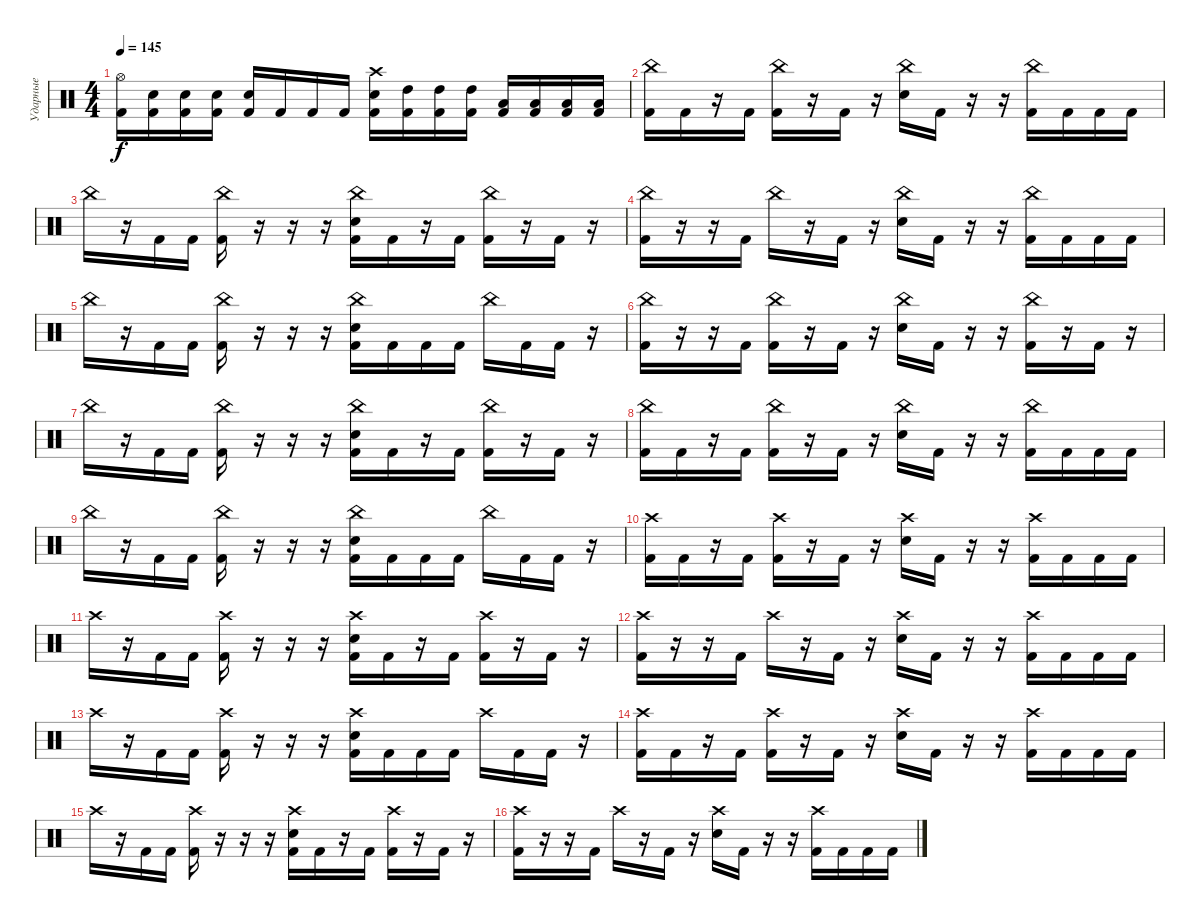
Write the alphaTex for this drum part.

\track ("Ударные" "Ударные") {instrument percussion}
\staff {score}
\articulation defaults
\ts (4 4)
\tempo 145
\clef neutral
\ks c
("Hi-Hat (open)" "Kick (hit) 2").16{dy f} ("Electric Snare (hit)" "Kick (hit) 2").16 ("Electric Snare (hit)" "Kick (hit) 2").16 ("Electric Snare (hit)" "Kick (hit) 2").16 ("Electric Snare (hit)" "Kick (hit) 2").16 "Kick (hit) 2".16 "Kick (hit) 2".16 "Kick (hit) 2".16 ("Crash high (hit)" "Electric Snare (hit)" "Kick (hit) 2").16 ("High Tom (hit)" "Kick (hit) 2").16 ("High Tom (hit)" "Kick (hit) 2").16 ("High Tom (hit)" "Kick (hit) 2").16 ("Low Tom (hit)" "Kick (hit) 2").16 ("Low Tom (hit)" "Kick (hit) 2").16 ("Low Tom (hit)" "Kick (hit) 2").16 ("Low Tom (hit)" "Kick (hit) 2").16 |
("China (hit)" "Kick (hit) 2").16 "Kick (hit) 2".16 r.16 "Kick (hit) 2".16 ("China (hit)" "Kick (hit) 2").16 r.16 "Kick (hit) 2".16 r.16 ("China (hit)" "Electric Snare (hit)").16 "Kick (hit) 2".16 r.16 r.16 ("China (hit)" "Kick (hit) 2").16 "Kick (hit) 2".16 "Kick (hit) 2".16 "Kick (hit) 2".16 |
"China (hit)".16 r.16 "Kick (hit) 2".16 "Kick (hit) 2".16 ("China (hit)" "Kick (hit) 2").16 r.16 r.16 r.16 ("China (hit)" "Electric Snare (hit)" "Kick (hit) 2").16 "Kick (hit) 2".16 r.16 "Kick (hit) 2".16 ("China (hit)" "Kick (hit) 2").16 r.16 "Kick (hit) 2".16 r.16 |
("China (hit)" "Kick (hit) 2").16 r.16 r.16 "Kick (hit) 2".16 "China (hit)".16 r.16 "Kick (hit) 2".16 r.16 ("China (hit)" "Electric Snare (hit)").16 "Kick (hit) 2".16 r.16 r.16 ("China (hit)" "Kick (hit) 2").16 "Kick (hit) 2".16 "Kick (hit) 2".16 "Kick (hit) 2".16 |
"China (hit)".16 r.16 "Kick (hit) 2".16 "Kick (hit) 2".16 ("China (hit)" "Kick (hit) 2").16 r.16 r.16 r.16 ("China (hit)" "Electric Snare (hit)" "Kick (hit) 2").16 "Kick (hit) 2".16 "Kick (hit) 2".16 "Kick (hit) 2".16 "China (hit)".16 "Kick (hit) 2".16 "Kick (hit) 2".16 r.16 |
("China (hit)" "Kick (hit) 2").16 r.16 r.16 "Kick (hit) 2".16 ("China (hit)" "Kick (hit) 2").16 r.16 "Kick (hit) 2".16 r.16 ("China (hit)" "Electric Snare (hit)").16 "Kick (hit) 2".16 r.16 r.16 ("China (hit)" "Kick (hit) 2").16 r.16 "Kick (hit) 2".16 r.16 |
"China (hit)".16 r.16 "Kick (hit) 2".16 "Kick (hit) 2".16 ("China (hit)" "Kick (hit) 2").16 r.16 r.16 r.16 ("China (hit)" "Electric Snare (hit)" "Kick (hit) 2").16 "Kick (hit) 2".16 r.16 "Kick (hit) 2".16 ("China (hit)" "Kick (hit) 2").16 r.16 "Kick (hit) 2".16 r.16 |
("China (hit)" "Kick (hit) 2").16 "Kick (hit) 2".16 r.16 "Kick (hit) 2".16 ("China (hit)" "Kick (hit) 2").16 r.16 "Kick (hit) 2".16 r.16 ("China (hit)" "Electric Snare (hit)").16 "Kick (hit) 2".16 r.16 r.16 ("China (hit)" "Kick (hit) 2").16 "Kick (hit) 2".16 "Kick (hit) 2".16 "Kick (hit) 2".16 |
"China (hit)".16 r.16 "Kick (hit) 2".16 "Kick (hit) 2".16 ("China (hit)" "Kick (hit) 2").16 r.16 r.16 r.16 ("China (hit)" "Electric Snare (hit)" "Kick (hit) 2").16 "Kick (hit) 2".16 "Kick (hit) 2".16 "Kick (hit) 2".16 "China (hit)".16 "Kick (hit) 2".16 "Kick (hit) 2".16 r.16 |
("Crash high (hit)" "Kick (hit) 2").16 "Kick (hit) 2".16 r.16 "Kick (hit) 2".16 ("Crash high (hit)" "Kick (hit) 2").16 r.16 "Kick (hit) 2".16 r.16 ("Crash high (hit)" "Electric Snare (hit)").16 "Kick (hit) 2".16 r.16 r.16 ("Crash high (hit)" "Kick (hit) 2").16 "Kick (hit) 2".16 "Kick (hit) 2".16 "Kick (hit) 2".16 |
"Crash high (hit)".16 r.16 "Kick (hit) 2".16 "Kick (hit) 2".16 ("Crash high (hit)" "Kick (hit) 2").16 r.16 r.16 r.16 ("Crash high (hit)" "Electric Snare (hit)" "Kick (hit) 2").16 "Kick (hit) 2".16 r.16 "Kick (hit) 2".16 ("Crash high (hit)" "Kick (hit) 2").16 r.16 "Kick (hit) 2".16 r.16 |
("Crash high (hit)" "Kick (hit) 2").16 r.16 r.16 "Kick (hit) 2".16 "Crash high (hit)".16 r.16 "Kick (hit) 2".16 r.16 ("Crash high (hit)" "Electric Snare (hit)").16 "Kick (hit) 2".16 r.16 r.16 ("Crash high (hit)" "Kick (hit) 2").16 "Kick (hit) 2".16 "Kick (hit) 2".16 "Kick (hit) 2".16 |
"Crash high (hit)".16 r.16 "Kick (hit) 2".16 "Kick (hit) 2".16 ("Crash high (hit)" "Kick (hit) 2").16 r.16 r.16 r.16 ("Crash high (hit)" "Electric Snare (hit)" "Kick (hit) 2").16 "Kick (hit) 2".16 "Kick (hit) 2".16 "Kick (hit) 2".16 "Crash high (hit)".16 "Kick (hit) 2".16 "Kick (hit) 2".16 r.16 |
("Crash high (hit)" "Kick (hit) 2").16 "Kick (hit) 2".16 r.16 "Kick (hit) 2".16 ("Crash high (hit)" "Kick (hit) 2").16 r.16 "Kick (hit) 2".16 r.16 ("Crash high (hit)" "Electric Snare (hit)").16 "Kick (hit) 2".16 r.16 r.16 ("Crash high (hit)" "Kick (hit) 2").16 "Kick (hit) 2".16 "Kick (hit) 2".16 "Kick (hit) 2".16 |
"Crash high (hit)".16 r.16 "Kick (hit) 2".16 "Kick (hit) 2".16 ("Crash high (hit)" "Kick (hit) 2").16 r.16 r.16 r.16 ("Crash high (hit)" "Electric Snare (hit)" "Kick (hit) 2").16 "Kick (hit) 2".16 r.16 "Kick (hit) 2".16 ("Crash high (hit)" "Kick (hit) 2").16 r.16 "Kick (hit) 2".16 r.16 |
("Crash high (hit)" "Kick (hit) 2").16 r.16 r.16 "Kick (hit) 2".16 "Crash high (hit)".16 r.16 "Kick (hit) 2".16 r.16 ("Crash high (hit)" "Electric Snare (hit)").16 "Kick (hit) 2".16 r.16 r.16 ("Crash high (hit)" "Kick (hit) 2").16 "Kick (hit) 2".16 "Kick (hit) 2".16 "Kick (hit) 2".16
